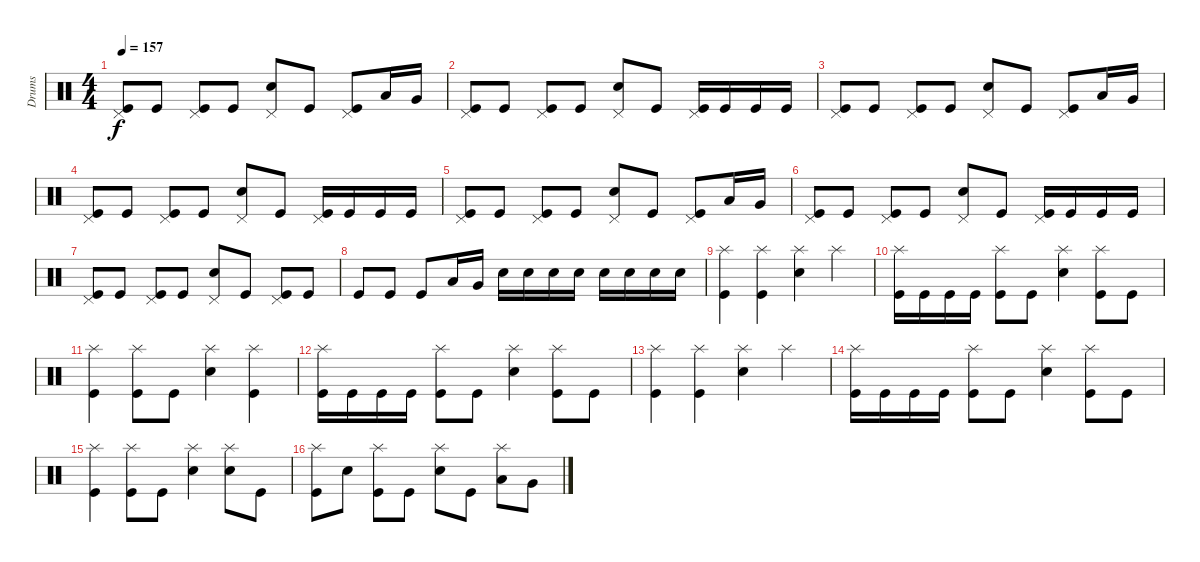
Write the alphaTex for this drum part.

\track ("Drums" "Drums") {instrument percussion}
\staff {score}
\articulation defaults
\ts (4 4)
\tempo 157
\clef neutral
\ks c
("Pedal Hi-Hat (hit)" "Kick (hit)").8{dy f} "Kick (hit)".8 ("Pedal Hi-Hat (hit)" "Kick (hit)").8 "Kick (hit)".8 ("Pedal Hi-Hat (hit)" "Electric Snare (hit)").8 "Kick (hit)".8 ("Pedal Hi-Hat (hit)" "Kick (hit)").8 "Low Tom (hit)".16 "Very Low Tom (hit)".16 |
("Pedal Hi-Hat (hit)" "Kick (hit)").8 "Kick (hit)".8 ("Pedal Hi-Hat (hit)" "Kick (hit)").8 "Kick (hit)".8 ("Pedal Hi-Hat (hit)" "Electric Snare (hit)").8 "Kick (hit)".8 ("Pedal Hi-Hat (hit)" "Kick (hit)").16 "Kick (hit)".16 "Kick (hit)".16 "Kick (hit)".16 |
("Pedal Hi-Hat (hit)" "Kick (hit)").8 "Kick (hit)".8 ("Pedal Hi-Hat (hit)" "Kick (hit)").8 "Kick (hit)".8 ("Pedal Hi-Hat (hit)" "Electric Snare (hit)").8 "Kick (hit)".8 ("Pedal Hi-Hat (hit)" "Kick (hit)").8 "Low Tom (hit)".16 "Very Low Tom (hit)".16 |
("Pedal Hi-Hat (hit)" "Kick (hit)").8 "Kick (hit)".8 ("Pedal Hi-Hat (hit)" "Kick (hit)").8 "Kick (hit)".8 ("Pedal Hi-Hat (hit)" "Electric Snare (hit)").8 "Kick (hit)".8 ("Pedal Hi-Hat (hit)" "Kick (hit)").16 "Kick (hit)".16 "Kick (hit)".16 "Kick (hit)".16 |
("Pedal Hi-Hat (hit)" "Kick (hit)").8 "Kick (hit)".8 ("Pedal Hi-Hat (hit)" "Kick (hit)").8 "Kick (hit)".8 ("Pedal Hi-Hat (hit)" "Electric Snare (hit)").8 "Kick (hit)".8 ("Pedal Hi-Hat (hit)" "Kick (hit)").8 "Low Tom (hit)".16 "Very Low Tom (hit)".16 |
("Pedal Hi-Hat (hit)" "Kick (hit)").8 "Kick (hit)".8 ("Pedal Hi-Hat (hit)" "Kick (hit)").8 "Kick (hit)".8 ("Pedal Hi-Hat (hit)" "Electric Snare (hit)").8 "Kick (hit)".8 ("Pedal Hi-Hat (hit)" "Kick (hit)").16 "Kick (hit)".16 "Kick (hit)".16 "Kick (hit)".16 |
("Pedal Hi-Hat (hit)" "Kick (hit)").8 "Kick (hit)".8 ("Pedal Hi-Hat (hit)" "Kick (hit)").8 "Kick (hit)".8 ("Pedal Hi-Hat (hit)" "Electric Snare (hit)").8 "Kick (hit)".8 ("Pedal Hi-Hat (hit)" "Kick (hit)").8 "Kick (hit)".8 |
"Kick (hit)".8 "Kick (hit)".8 "Kick (hit)".8 "Low Tom (hit)".16 "Very Low Tom (hit)".16 "Electric Snare (hit)".16 "Electric Snare (hit)".16 "Electric Snare (hit)".16 "Electric Snare (hit)".16 "Electric Snare (hit)".16 "Electric Snare (hit)".16 "Electric Snare (hit)".16 "Electric Snare (hit)".16 |
("Splash (hit)" "Kick (hit)").4 ("Splash (hit)" "Kick (hit)").4 ("Splash (hit)" "Electric Snare (hit)").4 "Splash (hit)".4 |
("Splash (hit)" "Kick (hit)").16 "Kick (hit)".16 "Kick (hit)".16 "Kick (hit)".16 ("Splash (hit)" "Kick (hit)").8 "Kick (hit)".8 ("Splash (hit)" "Electric Snare (hit)").4 ("Splash (hit)" "Kick (hit)").8 "Kick (hit)".8 |
("Splash (hit)" "Kick (hit)").4 ("Splash (hit)" "Kick (hit)").8 "Kick (hit)".8 ("Splash (hit)" "Electric Snare (hit)").4 ("Splash (hit)" "Kick (hit)").4 |
("Splash (hit)" "Kick (hit)").16 "Kick (hit)".16 "Kick (hit)".16 "Kick (hit)".16 ("Splash (hit)" "Kick (hit)").8 "Kick (hit)".8 ("Splash (hit)" "Electric Snare (hit)").4 ("Splash (hit)" "Kick (hit)").8 "Kick (hit)".8 |
("Splash (hit)" "Kick (hit)").4 ("Splash (hit)" "Kick (hit)").4 ("Splash (hit)" "Electric Snare (hit)").4 "Splash (hit)".4 |
("Splash (hit)" "Kick (hit)").16 "Kick (hit)".16 "Kick (hit)".16 "Kick (hit)".16 ("Splash (hit)" "Kick (hit)").8 "Kick (hit)".8 ("Splash (hit)" "Electric Snare (hit)").4 ("Splash (hit)" "Kick (hit)").8 "Kick (hit)".8 |
("Splash (hit)" "Kick (hit)").4 ("Splash (hit)" "Kick (hit)").8 "Kick (hit)".8 ("Splash (hit)" "Electric Snare (hit)").4 ("Splash (hit)" "Electric Snare (hit)").8 "Kick (hit)".8 |
("Splash (hit)" "Kick (hit)").8 "Electric Snare (hit)".8 ("Splash (hit)" "Kick (hit)").8 "Kick (hit)".8 ("Splash (hit)" "Electric Snare (hit)").8 "Kick (hit)".8 ("Splash (hit)" "Low Tom (hit)").8 "Very Low Tom (hit)".8
